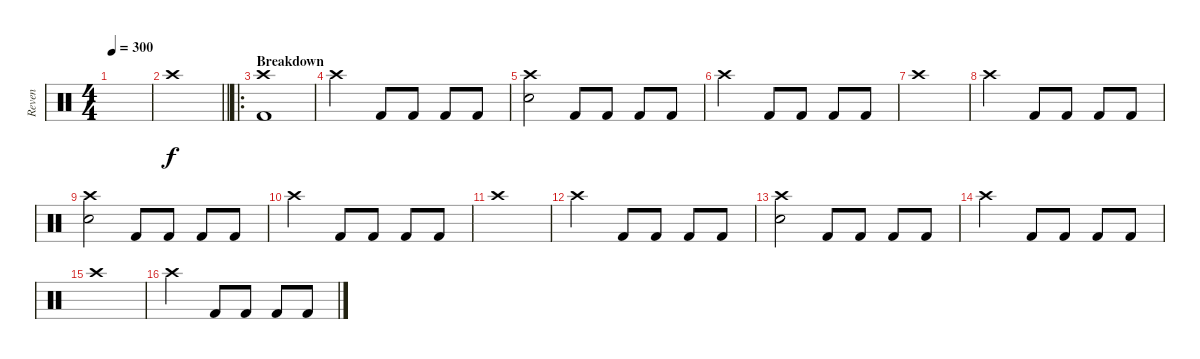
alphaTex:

\track ("Reven" "Reven") {instrument percussion}
\staff {score}
\articulation defaults
\ts (4 4)
\tempo 300
\clef neutral
\ks c
|
\barLineRight lightlight "Crash high (hit)".1
|
\ro
\section ("" "Breakdown")
("Crash high (hit)" "Kick (hit) 2").1 |
"Crash high (hit)".2 "Kick (hit) 2".8 "Kick (hit) 2".8 "Kick (hit) 2".8 "Kick (hit) 2".8 |
("Crash high (hit)" "Electric Snare (hit)").2 "Kick (hit) 2".8 "Kick (hit) 2".8 "Kick (hit) 2".8 "Kick (hit) 2".8 |
"Crash high (hit)".2 "Kick (hit) 2".8 "Kick (hit) 2".8 "Kick (hit) 2".8 "Kick (hit) 2".8 |
"Crash high (hit)".1 |
"Crash high (hit)".2 "Kick (hit) 2".8 "Kick (hit) 2".8 "Kick (hit) 2".8 "Kick (hit) 2".8 |
("Crash high (hit)" "Electric Snare (hit)").2 "Kick (hit) 2".8 "Kick (hit) 2".8 "Kick (hit) 2".8 "Kick (hit) 2".8 |
"Crash high (hit)".2 "Kick (hit) 2".8 "Kick (hit) 2".8 "Kick (hit) 2".8 "Kick (hit) 2".8 |
"Crash high (hit)".1 |
"Crash high (hit)".2 "Kick (hit) 2".8 "Kick (hit) 2".8 "Kick (hit) 2".8 "Kick (hit) 2".8 |
("Crash high (hit)" "Electric Snare (hit)").2 "Kick (hit) 2".8 "Kick (hit) 2".8 "Kick (hit) 2".8 "Kick (hit) 2".8 |
"Crash high (hit)".2 "Kick (hit) 2".8 "Kick (hit) 2".8 "Kick (hit) 2".8 "Kick (hit) 2".8 |
"Crash high (hit)".1 |
"Crash high (hit)".2 "Kick (hit) 2".8 "Kick (hit) 2".8 "Kick (hit) 2".8 "Kick (hit) 2".8
